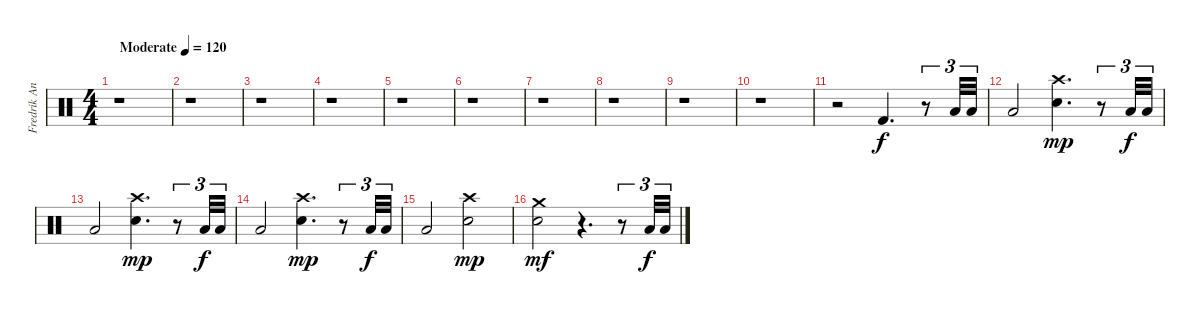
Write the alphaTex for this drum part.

\track ("Fredrik Andersson" "Fredrik An") {instrument percussion}
\staff {score}
\articulation defaults
\ts (4 4)
\tempo (120 "Moderate")
\clef neutral
\ks c
r.1{dy f} |
r.1 |
r.1 |
r.1 |
r.1 |
r.1 |
r.1 |
r.1 |
r.1 |
r.1 |
r.2 "Kick (hit) 2".4{d} r.8{tu (3 2)} "Low Tom (hit)".32{tu (3 2)} "Low Tom (hit)".32{tu (3 2)} |
"Low Tom (hit)".2 ("Crash high (hit)" "Snare (hit) 2").4{d dy mp} r.8{tu (3 2)} "Low Tom (hit)".32{tu (3 2) dy f} "Low Tom (hit)".32{tu (3 2)} |
"Low Tom (hit)".2 ("Crash high (hit)" "Snare (hit) 2").4{d dy mp} r.8{tu (3 2)} "Low Tom (hit)".32{tu (3 2) dy f} "Low Tom (hit)".32{tu (3 2)} |
"Low Tom (hit)".2 ("Crash high (hit)" "Snare (hit) 2").4{d dy mp} r.8{tu (3 2)} "Low Tom (hit)".32{tu (3 2) dy f} "Low Tom (hit)".32{tu (3 2)} |
"Low Tom (hit)".2 ("Crash high (hit)" "Snare (hit) 2").2{dy mp} |
("Crash medium (hit)" "Snare (hit) 2").2{dy mf} r.4{d} r.8{tu (3 2)} "Low Tom (hit)".32{tu (3 2) dy f} "Low Tom (hit)".32{tu (3 2)}
